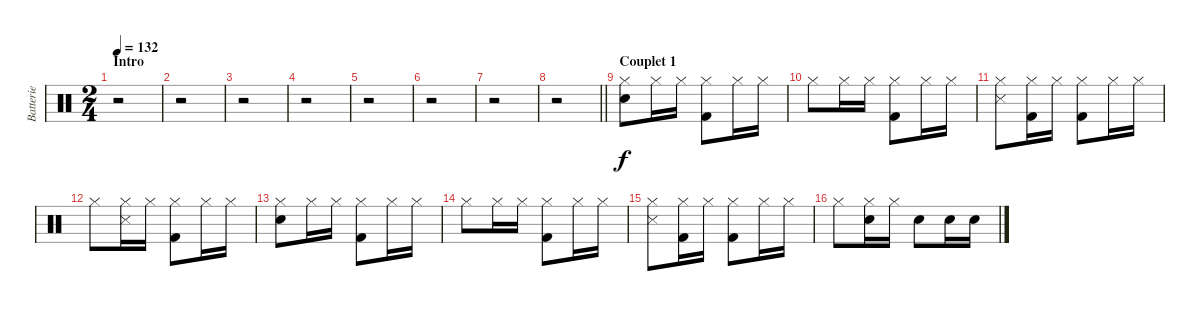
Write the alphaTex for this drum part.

\track ("Batterie" "Batterie") {instrument percussion}
\staff {score}
\articulation defaults
\ts (2 4)
\section ("" "Intro")
\tempo 132
\clef neutral
\ks c
r.2{dy f} |
r.2 |
r.2 |
r.2 |
r.2 |
r.2 |
r.2 |
\barLineRight lightlight
r.2 |
\section ("" "Couplet 1")
("Hi-Hat (closed)" "Snare (hit) 2").8 "Hi-Hat (closed)".16 "Hi-Hat (closed)".16 ("Hi-Hat (closed)" "Kick (hit) 2").8 "Hi-Hat (closed)".16 "Hi-Hat (closed)".16 |
"Hi-Hat (closed)".8 "Hi-Hat (closed)".16 "Hi-Hat (closed)".16 ("Hi-Hat (closed)" "Kick (hit) 2").8 "Hi-Hat (closed)".16 "Hi-Hat (closed)".16 |
("Hi-Hat (closed)" "Snare (side stick) 3").8 ("Hi-Hat (closed)" "Kick (hit) 2").16 "Hi-Hat (closed)".16 ("Hi-Hat (closed)" "Kick (hit) 2").8 "Hi-Hat (closed)".16 "Hi-Hat (closed)".16 |
"Hi-Hat (closed)".8 ("Hi-Hat (closed)" "Snare (side stick) 3").16 "Hi-Hat (closed)".16 ("Hi-Hat (closed)" "Kick (hit) 2").8 "Hi-Hat (closed)".16 "Hi-Hat (closed)".16 |
("Hi-Hat (closed)" "Snare (hit) 2").8 "Hi-Hat (closed)".16 "Hi-Hat (closed)".16 ("Hi-Hat (closed)" "Kick (hit) 2").8 "Hi-Hat (closed)".16 "Hi-Hat (closed)".16 |
"Hi-Hat (closed)".8 "Hi-Hat (closed)".16 "Hi-Hat (closed)".16 ("Hi-Hat (closed)" "Kick (hit) 2").8 "Hi-Hat (closed)".16 "Hi-Hat (closed)".16 |
("Hi-Hat (closed)" "Snare (side stick) 3").8 ("Hi-Hat (closed)" "Kick (hit) 2").16 "Hi-Hat (closed)".16 ("Hi-Hat (closed)" "Kick (hit) 2").8 "Hi-Hat (closed)".16 "Hi-Hat (closed)".16 |
"Hi-Hat (closed)".8 ("Hi-Hat (closed)" "Snare (hit) 2").16 "Hi-Hat (closed)".16 "Snare (hit) 2".8 "Snare (hit) 2".16 "Snare (hit) 2".16
